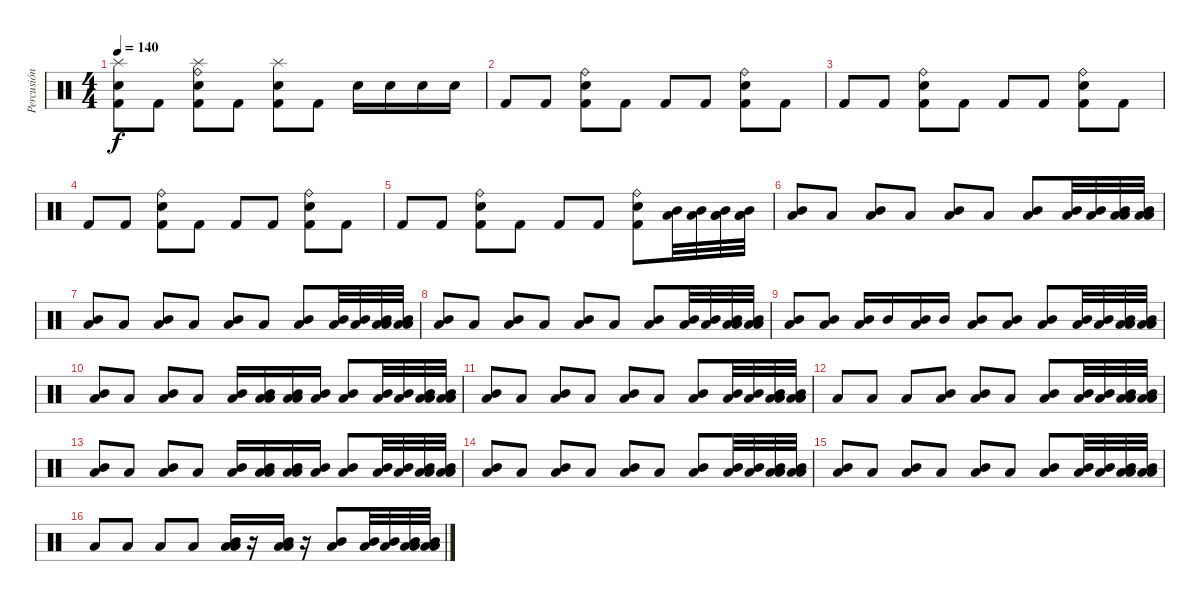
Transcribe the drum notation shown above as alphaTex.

\track ("Percusión" "Percusión") {instrument percussion}
\staff {score}
\articulation defaults
\ts (4 4)
\tempo 140
\clef neutral
\ks c
("Splash (hit)" "Electric Snare (hit)" "Kick (hit) 2").8{dy f} "Kick (hit) 2".8 ("Ride (bell)" "Splash (hit)" "Electric Snare (hit)" "Kick (hit) 2").8 "Kick (hit) 2".8 ("Splash (hit)" "Electric Snare (hit)" "Kick (hit) 2").8 "Kick (hit) 2".8 "Electric Snare (hit)".16 "Electric Snare (hit)".16 "Electric Snare (hit)".16 "Electric Snare (hit)".16 |
"Kick (hit) 2".8 "Kick (hit) 2".8 ("Ride (bell)" "Electric Snare (hit)" "Kick (hit) 2").8 "Kick (hit) 2".8 "Kick (hit) 2".8 "Kick (hit) 2".8 ("Ride (bell)" "Electric Snare (hit)" "Kick (hit) 2").8 "Kick (hit) 2".8 |
"Kick (hit) 2".8 "Kick (hit) 2".8 ("Ride (bell)" "Electric Snare (hit)" "Kick (hit) 2").8 "Kick (hit) 2".8 "Kick (hit) 2".8 "Kick (hit) 2".8 ("Ride (bell)" "Electric Snare (hit)" "Kick (hit) 2").8 "Kick (hit) 2".8 |
"Kick (hit) 2".8 "Kick (hit) 2".8 ("Ride (bell)" "Electric Snare (hit)" "Kick (hit) 2").8 "Kick (hit) 2".8 "Kick (hit) 2".8 "Kick (hit) 2".8 ("Ride (bell)" "Electric Snare (hit)" "Kick (hit) 2").8 "Kick (hit) 2".8 |
"Kick (hit) 2".8 "Kick (hit) 2".8 ("Ride (bell)" "Electric Snare (hit)" "Kick (hit) 2").8 "Kick (hit) 2".8 "Kick (hit) 2".8 "Kick (hit) 2".8 ("Ride (bell)" "Electric Snare (hit)" "Kick (hit) 2").8 ("Mid Tom (hit)" "Low Floor Tom (hit)").32 ("Mid Tom (hit)" "Low Floor Tom (hit)").32 ("Mid Tom (hit)" "Low Tom (hit)" "Low Floor Tom (hit)").32 ("Mid Tom (hit)" "Low Tom (hit)" "Low Floor Tom (hit)").32 |
("Mid Tom (hit)" "Low Floor Tom (hit)").8 "Low Floor Tom (hit)".8 ("Mid Tom (hit)" "Low Floor Tom (hit)").8 "Low Floor Tom (hit)".8 ("Mid Tom (hit)" "Low Floor Tom (hit)").8 "Low Floor Tom (hit)".8 ("Mid Tom (hit)" "Low Floor Tom (hit)").8 ("Mid Tom (hit)" "Low Floor Tom (hit)").32 ("Mid Tom (hit)" "Low Floor Tom (hit)").32 ("Mid Tom (hit)" "Low Tom (hit)" "Low Floor Tom (hit)").32 ("Mid Tom (hit)" "Low Tom (hit)" "Low Floor Tom (hit)").32 |
("Mid Tom (hit)" "Low Floor Tom (hit)").8 "Low Floor Tom (hit)".8 ("Mid Tom (hit)" "Low Floor Tom (hit)").8 "Low Floor Tom (hit)".8 ("Mid Tom (hit)" "Low Floor Tom (hit)").8 "Low Floor Tom (hit)".8 ("Mid Tom (hit)" "Low Floor Tom (hit)").8 ("Mid Tom (hit)" "Low Floor Tom (hit)").32 ("Mid Tom (hit)" "Low Floor Tom (hit)").32 ("Mid Tom (hit)" "Low Tom (hit)" "Low Floor Tom (hit)").32 ("Mid Tom (hit)" "Low Tom (hit)" "Low Floor Tom (hit)").32 |
("Mid Tom (hit)" "Low Floor Tom (hit)").8 "Low Floor Tom (hit)".8 ("Mid Tom (hit)" "Low Floor Tom (hit)").8 "Low Floor Tom (hit)".8 ("Mid Tom (hit)" "Low Floor Tom (hit)").8 "Low Floor Tom (hit)".8 ("Mid Tom (hit)" "Low Floor Tom (hit)").8 ("Mid Tom (hit)" "Low Floor Tom (hit)").32 ("Mid Tom (hit)" "Low Floor Tom (hit)").32 ("Mid Tom (hit)" "Low Tom (hit)" "Low Floor Tom (hit)").32 ("Mid Tom (hit)" "Low Tom (hit)" "Low Floor Tom (hit)").32 |
("Mid Tom (hit)" "Low Floor Tom (hit)").8 ("Mid Tom (hit)" "Low Floor Tom (hit)").8 ("Mid Tom (hit)" "Low Floor Tom (hit)").16 "Mid Tom (hit)".16 ("Mid Tom (hit)" "Low Floor Tom (hit)").16 "Mid Tom (hit)".16 ("Mid Tom (hit)" "Low Floor Tom (hit)").8 ("Mid Tom (hit)" "Low Floor Tom (hit)").8 ("Mid Tom (hit)" "Low Floor Tom (hit)").8 ("Mid Tom (hit)" "Low Floor Tom (hit)").32 ("Mid Tom (hit)" "Low Floor Tom (hit)").32 ("Mid Tom (hit)" "Low Tom (hit)" "Low Floor Tom (hit)").32 ("Mid Tom (hit)" "Low Tom (hit)" "Low Floor Tom (hit)").32 |
("Mid Tom (hit)" "Low Floor Tom (hit)").8 "Low Floor Tom (hit)".8 ("Mid Tom (hit)" "Low Floor Tom (hit)").8 "Low Floor Tom (hit)".8 ("Mid Tom (hit)" "Low Floor Tom (hit)").16 ("Mid Tom (hit)" "Low Tom (hit)" "Low Floor Tom (hit)").16 ("Mid Tom (hit)" "Low Tom (hit)" "Low Floor Tom (hit)").16 ("Mid Tom (hit)" "Low Floor Tom (hit)").16 ("Mid Tom (hit)" "Low Floor Tom (hit)").8 ("Mid Tom (hit)" "Low Floor Tom (hit)").32 ("Mid Tom (hit)" "Low Floor Tom (hit)").32 ("Mid Tom (hit)" "Low Tom (hit)" "Low Floor Tom (hit)").32 ("Mid Tom (hit)" "Low Tom (hit)" "Low Floor Tom (hit)").32 |
("Mid Tom (hit)" "Low Floor Tom (hit)").8 "Low Floor Tom (hit)".8 ("Mid Tom (hit)" "Low Floor Tom (hit)").8 "Low Floor Tom (hit)".8 ("Mid Tom (hit)" "Low Floor Tom (hit)").8 "Low Floor Tom (hit)".8 ("Mid Tom (hit)" "Low Floor Tom (hit)").8 ("Mid Tom (hit)" "Low Floor Tom (hit)").32 ("Mid Tom (hit)" "Low Floor Tom (hit)").32 ("Mid Tom (hit)" "Low Tom (hit)" "Low Floor Tom (hit)").32 ("Mid Tom (hit)" "Low Tom (hit)" "Low Floor Tom (hit)").32 |
"Low Floor Tom (hit)".8 "Low Floor Tom (hit)".8 "Low Floor Tom (hit)".8 ("Mid Tom (hit)" "Low Floor Tom (hit)").8 ("Mid Tom (hit)" "Low Floor Tom (hit)").8 "Low Floor Tom (hit)".8 ("Mid Tom (hit)" "Low Floor Tom (hit)").8 ("Mid Tom (hit)" "Low Floor Tom (hit)").32 ("Mid Tom (hit)" "Low Floor Tom (hit)").32 ("Mid Tom (hit)" "Low Tom (hit)" "Low Floor Tom (hit)").32 ("Mid Tom (hit)" "Low Tom (hit)" "Low Floor Tom (hit)").32 |
("Mid Tom (hit)" "Low Floor Tom (hit)").8 "Low Floor Tom (hit)".8 ("Mid Tom (hit)" "Low Floor Tom (hit)").8 "Low Floor Tom (hit)".8 ("Mid Tom (hit)" "Low Floor Tom (hit)").16 ("Mid Tom (hit)" "Low Tom (hit)" "Low Floor Tom (hit)").16 ("Mid Tom (hit)" "Low Tom (hit)" "Low Floor Tom (hit)").16 ("Mid Tom (hit)" "Low Floor Tom (hit)").16 ("Mid Tom (hit)" "Low Floor Tom (hit)").8 ("Mid Tom (hit)" "Low Floor Tom (hit)").32 ("Mid Tom (hit)" "Low Floor Tom (hit)").32 ("Mid Tom (hit)" "Low Tom (hit)" "Low Floor Tom (hit)").32 ("Mid Tom (hit)" "Low Tom (hit)" "Low Floor Tom (hit)").32 |
("Mid Tom (hit)" "Low Floor Tom (hit)").8 "Low Floor Tom (hit)".8 ("Mid Tom (hit)" "Low Floor Tom (hit)").8 "Low Floor Tom (hit)".8 ("Mid Tom (hit)" "Low Floor Tom (hit)").8 "Low Floor Tom (hit)".8 ("Mid Tom (hit)" "Low Floor Tom (hit)").8 ("Mid Tom (hit)" "Low Floor Tom (hit)").32 ("Mid Tom (hit)" "Low Floor Tom (hit)").32 ("Mid Tom (hit)" "Low Tom (hit)" "Low Floor Tom (hit)").32 ("Mid Tom (hit)" "Low Tom (hit)" "Low Floor Tom (hit)").32 |
("Mid Tom (hit)" "Low Floor Tom (hit)").8 "Low Floor Tom (hit)".8 ("Mid Tom (hit)" "Low Floor Tom (hit)").8 "Low Floor Tom (hit)".8 ("Mid Tom (hit)" "Low Floor Tom (hit)").8 "Low Floor Tom (hit)".8 ("Mid Tom (hit)" "Low Floor Tom (hit)").8 ("Mid Tom (hit)" "Low Floor Tom (hit)").32 ("Mid Tom (hit)" "Low Floor Tom (hit)").32 ("Mid Tom (hit)" "Low Tom (hit)" "Low Floor Tom (hit)").32 ("Mid Tom (hit)" "Low Tom (hit)" "Low Floor Tom (hit)").32 |
"Low Floor Tom (hit)".8 "Low Floor Tom (hit)".8 "Low Floor Tom (hit)".8 "Low Floor Tom (hit)".8 ("Mid Tom (hit)" "Low Tom (hit)" "Low Floor Tom (hit)").16 r.16 ("Mid Tom (hit)" "Low Tom (hit)" "Low Floor Tom (hit)").16 r.16 ("Mid Tom (hit)" "Low Floor Tom (hit)").8 ("Mid Tom (hit)" "Low Floor Tom (hit)").32 ("Mid Tom (hit)" "Low Floor Tom (hit)").32 ("Mid Tom (hit)" "Low Tom (hit)" "Low Floor Tom (hit)").32 ("Mid Tom (hit)" "Low Tom (hit)" "Low Floor Tom (hit)").32
